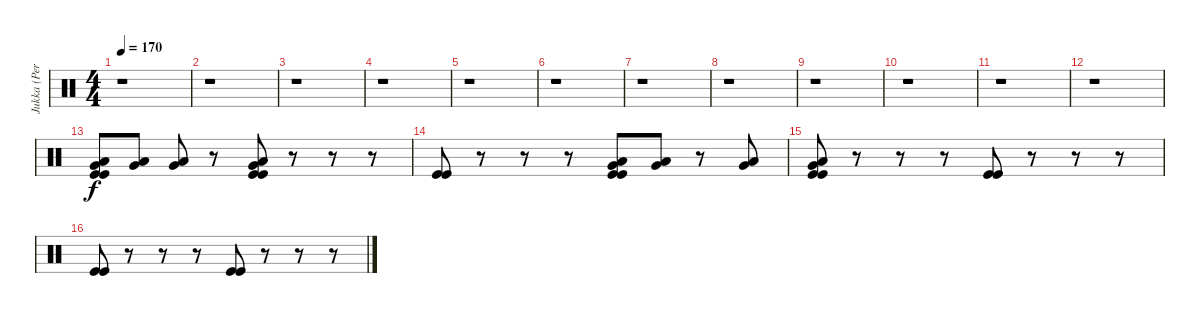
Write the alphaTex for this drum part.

\track ("Jukka (Percussion)" "Jukka (Per") {instrument percussion}
\staff {score}
\articulation defaults
\ts (4 4)
\tempo 170
\clef neutral
\ks c
r.1{dy f} |
r.1 |
r.1 |
r.1 |
r.1 |
r.1 |
r.1 |
r.1 |
r.1 |
r.1 |
r.1 |
r.1 |
("Very Low Tom (hit)" "Low Floor Tom (hit)" "Kick (hit)" "Kick (hit)").8 ("Very Low Tom (hit)" "Low Floor Tom (hit)").8 ("Very Low Tom (hit)" "Low Floor Tom (hit)").8 r.8 ("Very Low Tom (hit)" "Low Floor Tom (hit)" "Kick (hit)" "Kick (hit)").8 r.8 r.8 r.8 |
("Kick (hit)" "Kick (hit)").8 r.8 r.8 r.8 ("Low Floor Tom (hit)" "Very Low Tom (hit)" "Kick (hit)" "Kick (hit)").8 ("Low Floor Tom (hit)" "Very Low Tom (hit)").8 r.8 ("Low Floor Tom (hit)" "Very Low Tom (hit)").8 |
("Low Floor Tom (hit)" "Very Low Tom (hit)" "Kick (hit)" "Kick (hit)").8 r.8 r.8 r.8 ("Kick (hit)" "Kick (hit)").8 r.8 r.8 r.8 |
("Kick (hit)" "Kick (hit)").8 r.8 r.8 r.8 ("Kick (hit)" "Kick (hit)").8 r.8 r.8 r.8
